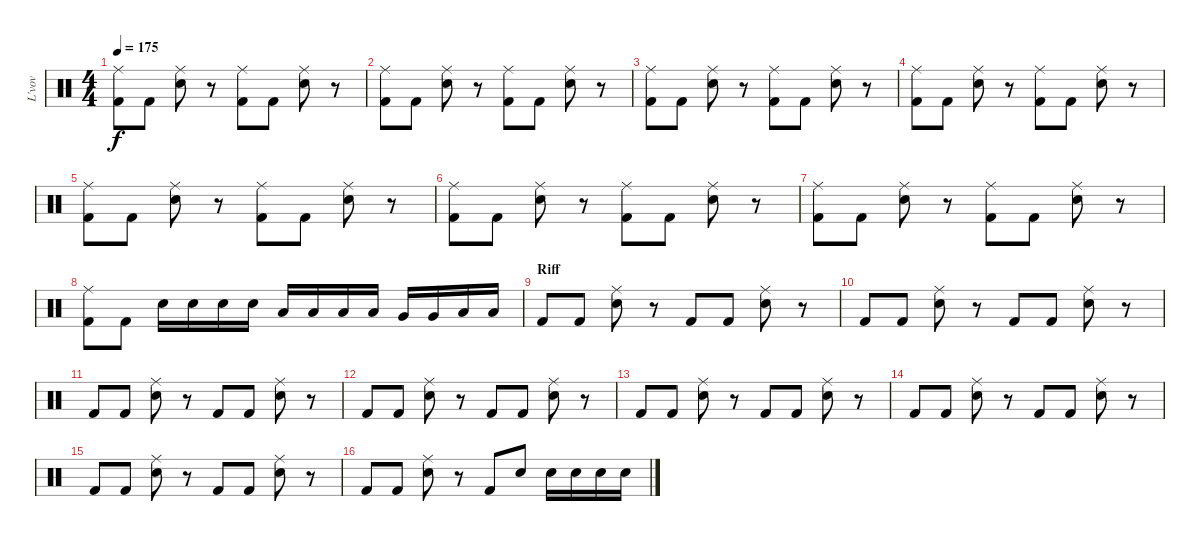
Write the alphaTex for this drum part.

\track ("L'vov" "L'vov") {instrument percussion}
\staff {score}
\articulation defaults
\ts (4 4)
\tempo 175
\clef neutral
\ks c
("Kick (hit) 2" "Ride (middle)").8{dy f} "Kick (hit) 2".8 ("Snare (hit) 2" "Ride (middle)").8 r.8 ("Kick (hit) 2" "Ride (middle)").8 "Kick (hit) 2".8 ("Snare (hit) 2" "Ride (middle)").8 r.8 |
("Kick (hit) 2" "Ride (middle)").8 "Kick (hit) 2".8 ("Snare (hit) 2" "Ride (middle)").8 r.8 ("Kick (hit) 2" "Ride (middle)").8 "Kick (hit) 2".8 ("Snare (hit) 2" "Ride (middle)").8 r.8 |
("Kick (hit) 2" "Ride (middle)").8 "Kick (hit) 2".8 ("Snare (hit) 2" "Ride (middle)").8 r.8 ("Kick (hit) 2" "Ride (middle)").8 "Kick (hit) 2".8 ("Snare (hit) 2" "Ride (middle)").8 r.8 |
("Kick (hit) 2" "Ride (middle)").8 "Kick (hit) 2".8 ("Snare (hit) 2" "Ride (middle)").8 r.8 ("Kick (hit) 2" "Ride (middle)").8 "Kick (hit) 2".8 ("Snare (hit) 2" "Ride (middle)").8 r.8 |
("Kick (hit) 2" "Ride (middle)").8 "Kick (hit) 2".8 ("Snare (hit) 2" "Ride (middle)").8 r.8 ("Kick (hit) 2" "Ride (middle)").8 "Kick (hit) 2".8 ("Snare (hit) 2" "Ride (middle)").8 r.8 |
("Kick (hit) 2" "Ride (middle)").8 "Kick (hit) 2".8 ("Snare (hit) 2" "Ride (middle)").8 r.8 ("Kick (hit) 2" "Ride (middle)").8 "Kick (hit) 2".8 ("Snare (hit) 2" "Ride (middle)").8 r.8 |
("Kick (hit) 2" "Ride (middle)").8 "Kick (hit) 2".8 ("Snare (hit) 2" "Ride (middle)").8 r.8 ("Kick (hit) 2" "Ride (middle)").8 "Kick (hit) 2".8 ("Snare (hit) 2" "Ride (middle)").8 r.8 |
("Kick (hit) 2" "Ride (middle)").8 "Kick (hit) 2".8 "Snare (hit) 2".16 "Snare (hit) 2".16 "Snare (hit) 2".16 "Snare (hit) 2".16 "Low Tom (hit)".16 "Low Tom (hit)".16 "Low Tom (hit)".16 "Low Tom (hit)".16 "Very Low Tom (hit)".16 "Very Low Tom (hit)".16 "Low Floor Tom (hit)".16 "Low Floor Tom (hit)".16 |
\section ("" "Riff")
"Kick (hit) 2".8 "Kick (hit) 2".8 ("Snare (hit) 2" "Ride (middle)").8 r.8 "Kick (hit) 2".8 "Kick (hit) 2".8 ("Snare (hit) 2" "Ride (middle)").8 r.8 |
"Kick (hit) 2".8 "Kick (hit) 2".8 ("Snare (hit) 2" "Ride (middle)").8 r.8 "Kick (hit) 2".8 "Kick (hit) 2".8 ("Snare (hit) 2" "Ride (middle)").8 r.8 |
"Kick (hit) 2".8 "Kick (hit) 2".8 ("Snare (hit) 2" "Ride (middle)").8 r.8 "Kick (hit) 2".8 "Kick (hit) 2".8 ("Snare (hit) 2" "Ride (middle)").8 r.8 |
"Kick (hit) 2".8 "Kick (hit) 2".8 ("Snare (hit) 2" "Ride (middle)").8 r.8 "Kick (hit) 2".8 "Kick (hit) 2".8 ("Snare (hit) 2" "Ride (middle)").8 r.8 |
"Kick (hit) 2".8 "Kick (hit) 2".8 ("Snare (hit) 2" "Ride (middle)").8 r.8 "Kick (hit) 2".8 "Kick (hit) 2".8 ("Snare (hit) 2" "Ride (middle)").8 r.8 |
"Kick (hit) 2".8 "Kick (hit) 2".8 ("Snare (hit) 2" "Ride (middle)").8 r.8 "Kick (hit) 2".8 "Kick (hit) 2".8 ("Snare (hit) 2" "Ride (middle)").8 r.8 |
"Kick (hit) 2".8 "Kick (hit) 2".8 ("Snare (hit) 2" "Ride (middle)").8 r.8 "Kick (hit) 2".8 "Kick (hit) 2".8 ("Snare (hit) 2" "Ride (middle)").8 r.8 |
"Kick (hit) 2".8 "Kick (hit) 2".8 ("Snare (hit) 2" "Ride (middle)").8 r.8 "Kick (hit) 2".8 "Electric Snare (hit)".8 "Snare (hit) 2".16 "Snare (hit) 2".16 "Snare (hit) 2".16 "Snare (hit) 2".16
